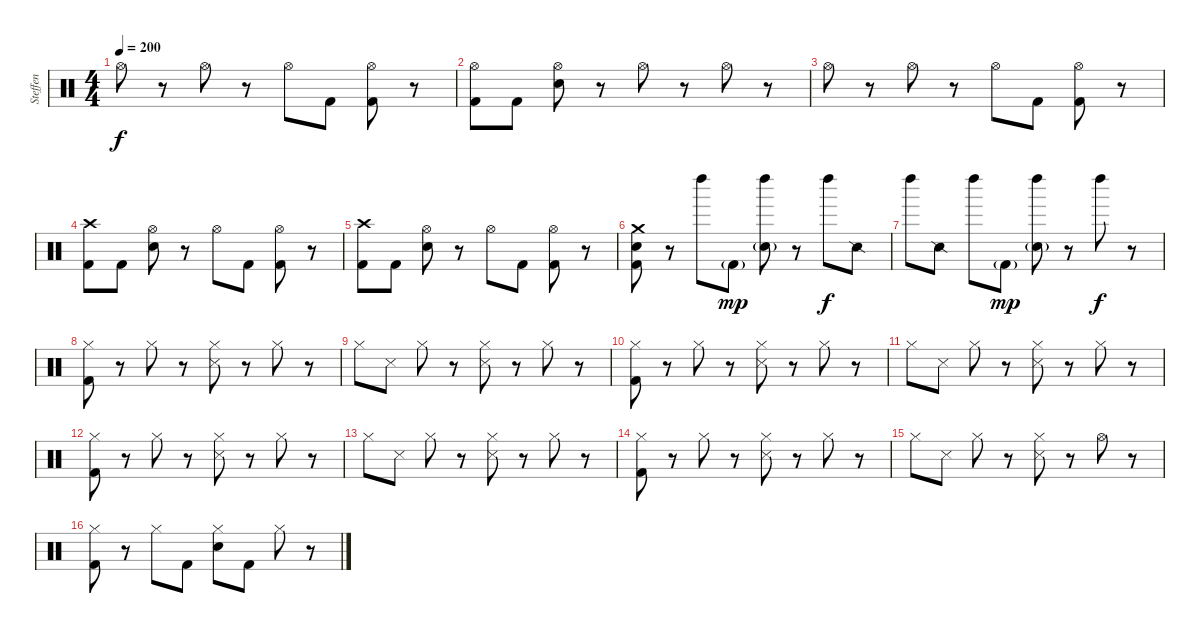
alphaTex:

\track ("Steffen" "Steffen") {instrument percussion}
\staff {score}
\articulation defaults
\ts (4 4)
\tempo 200
\clef neutral
\ks c "Hi-Hat (open)".8{dy f}
r.8 "Hi-Hat (open)".8 r.8 "Hi-Hat (open)".8 "Kick (hit) 2".8 ("Hi-Hat (open)" "Kick (hit) 2").8 r.8 |
("Hi-Hat (open)" "Kick (hit) 2").8 "Kick (hit) 2".8 ("Hi-Hat (open)" "Electric Snare (hit)").8 r.8 "Hi-Hat (open)".8 r.8 "Hi-Hat (open)".8 r.8 |
"Hi-Hat (open)".8 r.8 "Hi-Hat (open)".8 r.8 "Hi-Hat (open)".8 "Kick (hit) 2".8 ("Hi-Hat (open)" "Kick (hit) 2").8 r.8 |
("Crash high (hit)" "Kick (hit) 2").8 "Kick (hit) 2".8 ("Hi-Hat (open)" "Electric Snare (hit)").8 r.8 "Hi-Hat (open)".8 "Kick (hit) 2".8 ("Hi-Hat (open)" "Kick (hit) 2").8 r.8 |
("Crash high (hit)" "Kick (hit) 2").8 "Kick (hit) 2".8 ("Hi-Hat (open)" "Electric Snare (hit)").8 r.8 "Hi-Hat (open)".8 "Kick (hit) 2".8 ("Hi-Hat (open)" "Kick (hit) 2").8 r.8 |
("Crash medium (hit)" "Kick (hit) 2" "Electric Snare (hit)").8 r.8 "Left Maraca (hit)".8 "Kick (hit) 2"{g}.8{dy mp} ("Left Maraca (hit)" "Electric Snare (hit)"{g}).8 r.8 "Left Maraca (hit)".8{dy f} "Snare (side stick) 2".8 |
"Left Maraca (hit)".8 "Snare (side stick) 2".8 "Left Maraca (hit)".8 "Kick (hit) 2"{g}.8{dy mp} ("Left Maraca (hit)" "Electric Snare (hit)"{g}).8 r.8 "Left Maraca (hit)".8{dy f} r.8 |
("Hi-Hat (closed)" "Kick (hit) 2").8{volume 16} r.8 "Hi-Hat (closed)".8 r.8 ("Hi-Hat (closed)" "Snare (side stick) 3").8 r.8 "Hi-Hat (closed)".8 r.8 |
"Hi-Hat (closed)".8 "Snare (side stick) 3".8 "Hi-Hat (closed)".8 r.8 ("Hi-Hat (closed)" "Snare (side stick) 3").8 r.8 "Hi-Hat (closed)".8 r.8 |
("Hi-Hat (closed)" "Kick (hit) 2").8 r.8 "Hi-Hat (closed)".8 r.8 ("Hi-Hat (closed)" "Snare (side stick) 3").8 r.8 "Hi-Hat (closed)".8 r.8 |
"Hi-Hat (closed)".8 "Snare (side stick) 3".8 "Hi-Hat (closed)".8 r.8 ("Hi-Hat (closed)" "Snare (side stick) 3").8 r.8 "Hi-Hat (closed)".8 r.8 |
("Hi-Hat (closed)" "Kick (hit) 2").8 r.8 "Hi-Hat (closed)".8 r.8 ("Hi-Hat (closed)" "Snare (side stick) 3").8 r.8 "Hi-Hat (closed)".8 r.8 |
"Hi-Hat (closed)".8 "Snare (side stick) 3".8 "Hi-Hat (closed)".8 r.8 ("Hi-Hat (closed)" "Snare (side stick) 3").8 r.8 "Hi-Hat (closed)".8 r.8 |
("Hi-Hat (closed)" "Kick (hit) 2").8 r.8 "Hi-Hat (closed)".8 r.8 ("Hi-Hat (closed)" "Snare (side stick) 3").8 r.8 "Hi-Hat (closed)".8 r.8 |
"Hi-Hat (closed)".8 "Snare (side stick) 3".8 "Hi-Hat (closed)".8 r.8 ("Hi-Hat (closed)" "Snare (side stick) 3").8 r.8 "Hi-Hat (open)".8 r.8 |
("Hi-Hat (closed)" "Kick (hit) 2").8{volume 16} r.8 "Hi-Hat (closed)".8 "Kick (hit) 2".8 ("Hi-Hat (closed)" "Electric Snare (hit)").8 "Kick (hit) 2".8 "Hi-Hat (closed)".8 r.8
